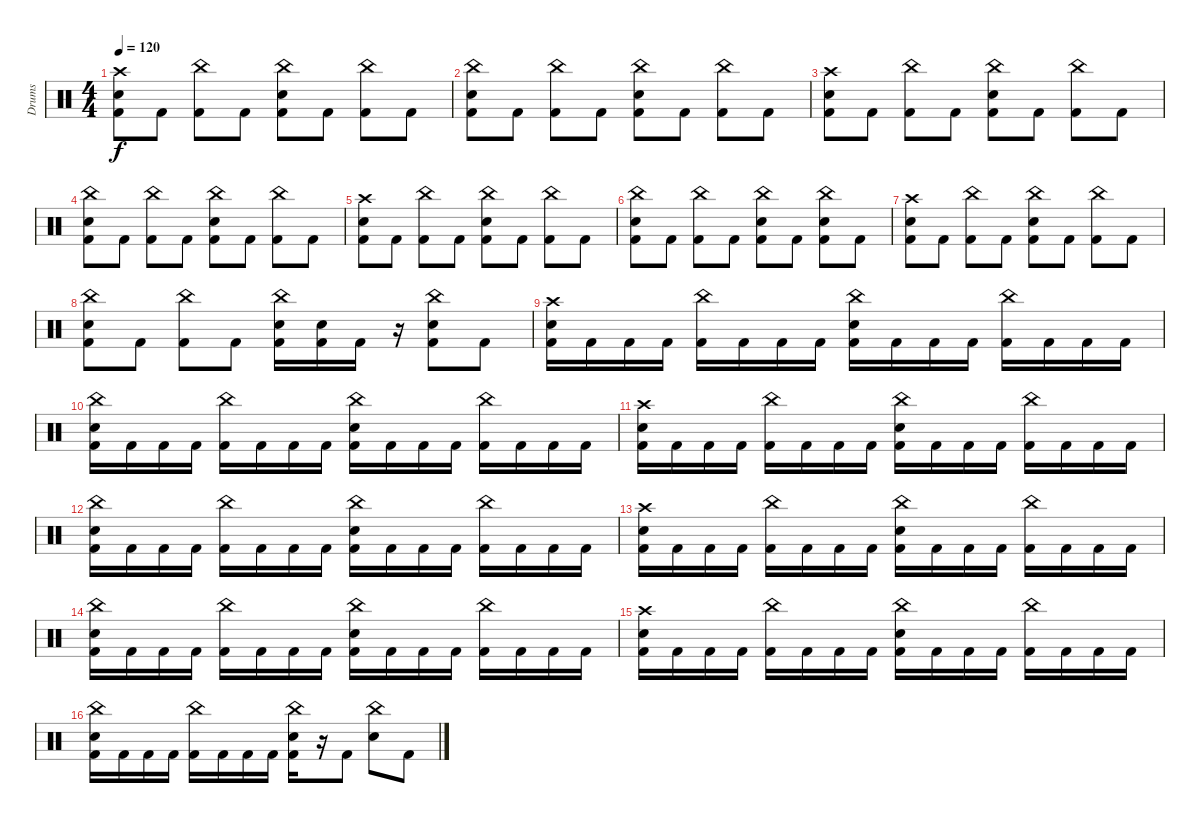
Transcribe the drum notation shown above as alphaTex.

\track ("Drums" "Drums") {instrument percussion}
\staff {score}
\articulation defaults
\ts (4 4)
\tempo 120
\clef neutral
\ks c
("Crash high (hit)" "Snare (hit) 2" "Kick (hit) 2").8{dy f} "Kick (hit) 2".8 ("China (hit)" "Kick (hit) 2").8 "Kick (hit) 2".8 ("China (hit)" "Snare (hit) 2" "Kick (hit) 2").8 "Kick (hit) 2".8 ("China (hit)" "Kick (hit) 2").8 "Kick (hit) 2".8 |
("China (hit)" "Snare (hit) 2" "Kick (hit) 2").8 "Kick (hit) 2".8 ("China (hit)" "Kick (hit) 2").8 "Kick (hit) 2".8 ("China (hit)" "Snare (hit) 2" "Kick (hit) 2").8 "Kick (hit) 2".8 ("China (hit)" "Kick (hit) 2").8 "Kick (hit) 2".8 |
("Crash high (hit)" "Snare (hit) 2" "Kick (hit) 2").8 "Kick (hit) 2".8 ("China (hit)" "Kick (hit) 2").8 "Kick (hit) 2".8 ("China (hit)" "Snare (hit) 2" "Kick (hit) 2").8 "Kick (hit) 2".8 ("China (hit)" "Kick (hit) 2").8 "Kick (hit) 2".8 |
("China (hit)" "Snare (hit) 2" "Kick (hit) 2").8 "Kick (hit) 2".8 ("China (hit)" "Kick (hit) 2").8 "Kick (hit) 2".8 ("China (hit)" "Snare (hit) 2" "Kick (hit) 2").8 "Kick (hit) 2".8 ("China (hit)" "Kick (hit) 2").8 "Kick (hit) 2".8 |
("Crash high (hit)" "Snare (hit) 2" "Kick (hit) 2").8 "Kick (hit) 2".8 ("China (hit)" "Kick (hit) 2").8 "Kick (hit) 2".8 ("China (hit)" "Snare (hit) 2" "Kick (hit) 2").8 "Kick (hit) 2".8 ("China (hit)" "Kick (hit) 2").8 "Kick (hit) 2".8 |
("China (hit)" "Snare (hit) 2" "Kick (hit) 2").8 "Kick (hit) 2".8 ("China (hit)" "Kick (hit) 2").8 "Kick (hit) 2".8 ("China (hit)" "Snare (hit) 2" "Kick (hit) 2").8 "Kick (hit) 2".8 ("China (hit)" "Snare (hit) 2" "Kick (hit) 2").8 "Kick (hit) 2".8 |
("Crash high (hit)" "Snare (hit) 2" "Kick (hit) 2").8 "Kick (hit) 2".8 ("China (hit)" "Kick (hit) 2").8 "Kick (hit) 2".8 ("China (hit)" "Snare (hit) 2" "Kick (hit) 2").8 "Kick (hit) 2".8 ("China (hit)" "Kick (hit) 2").8 "Kick (hit) 2".8 |
("China (hit)" "Snare (hit) 2" "Kick (hit) 2").8 "Kick (hit) 2".8 ("China (hit)" "Kick (hit) 2").8 "Kick (hit) 2".8 ("China (hit)" "Snare (hit) 2" "Kick (hit) 2").16 ("Snare (hit) 2" "Kick (hit) 2").16 "Kick (hit) 2".16 r.16 ("China (hit)" "Snare (hit) 2" "Kick (hit) 2").8 "Kick (hit) 2".8 |
("Crash high (hit)" "Snare (hit) 2" "Kick (hit) 2").16 "Kick (hit) 2".16 "Kick (hit) 2".16 "Kick (hit) 2".16 ("China (hit)" "Kick (hit) 2").16 "Kick (hit) 2".16 "Kick (hit) 2".16 "Kick (hit) 2".16 ("China (hit)" "Snare (hit) 2" "Kick (hit) 2").16 "Kick (hit) 2".16 "Kick (hit) 2".16 "Kick (hit) 2".16 ("China (hit)" "Kick (hit) 2").16 "Kick (hit) 2".16 "Kick (hit) 2".16 "Kick (hit) 2".16 |
("China (hit)" "Snare (hit) 2" "Kick (hit) 2").16 "Kick (hit) 2".16 "Kick (hit) 2".16 "Kick (hit) 2".16 ("China (hit)" "Kick (hit) 2").16 "Kick (hit) 2".16 "Kick (hit) 2".16 "Kick (hit) 2".16 ("China (hit)" "Snare (hit) 2" "Kick (hit) 2").16 "Kick (hit) 2".16 "Kick (hit) 2".16 "Kick (hit) 2".16 ("China (hit)" "Kick (hit) 2").16 "Kick (hit) 2".16 "Kick (hit) 2".16 "Kick (hit) 2".16 |
("Crash high (hit)" "Snare (hit) 2" "Kick (hit) 2").16 "Kick (hit) 2".16 "Kick (hit) 2".16 "Kick (hit) 2".16 ("China (hit)" "Kick (hit) 2").16 "Kick (hit) 2".16 "Kick (hit) 2".16 "Kick (hit) 2".16 ("China (hit)" "Snare (hit) 2" "Kick (hit) 2").16 "Kick (hit) 2".16 "Kick (hit) 2".16 "Kick (hit) 2".16 ("China (hit)" "Kick (hit) 2").16 "Kick (hit) 2".16 "Kick (hit) 2".16 "Kick (hit) 2".16 |
("China (hit)" "Snare (hit) 2" "Kick (hit) 2").16 "Kick (hit) 2".16 "Kick (hit) 2".16 "Kick (hit) 2".16 ("China (hit)" "Kick (hit) 2").16 "Kick (hit) 2".16 "Kick (hit) 2".16 "Kick (hit) 2".16 ("China (hit)" "Snare (hit) 2" "Kick (hit) 2").16 "Kick (hit) 2".16 "Kick (hit) 2".16 "Kick (hit) 2".16 ("China (hit)" "Kick (hit) 2").16 "Kick (hit) 2".16 "Kick (hit) 2".16 "Kick (hit) 2".16 |
("Crash high (hit)" "Snare (hit) 2" "Kick (hit) 2").16 "Kick (hit) 2".16 "Kick (hit) 2".16 "Kick (hit) 2".16 ("China (hit)" "Kick (hit) 2").16 "Kick (hit) 2".16 "Kick (hit) 2".16 "Kick (hit) 2".16 ("China (hit)" "Snare (hit) 2" "Kick (hit) 2").16 "Kick (hit) 2".16 "Kick (hit) 2".16 "Kick (hit) 2".16 ("China (hit)" "Kick (hit) 2").16 "Kick (hit) 2".16 "Kick (hit) 2".16 "Kick (hit) 2".16 |
("China (hit)" "Snare (hit) 2" "Kick (hit) 2").16 "Kick (hit) 2".16 "Kick (hit) 2".16 "Kick (hit) 2".16 ("China (hit)" "Kick (hit) 2").16 "Kick (hit) 2".16 "Kick (hit) 2".16 "Kick (hit) 2".16 ("China (hit)" "Snare (hit) 2" "Kick (hit) 2").16 "Kick (hit) 2".16 "Kick (hit) 2".16 "Kick (hit) 2".16 ("China (hit)" "Kick (hit) 2").16 "Kick (hit) 2".16 "Kick (hit) 2".16 "Kick (hit) 2".16 |
("Crash high (hit)" "Snare (hit) 2" "Kick (hit) 2").16 "Kick (hit) 2".16 "Kick (hit) 2".16 "Kick (hit) 2".16 ("China (hit)" "Kick (hit) 2").16 "Kick (hit) 2".16 "Kick (hit) 2".16 "Kick (hit) 2".16 ("China (hit)" "Snare (hit) 2" "Kick (hit) 2").16 "Kick (hit) 2".16 "Kick (hit) 2".16 "Kick (hit) 2".16 ("China (hit)" "Kick (hit) 2").16 "Kick (hit) 2".16 "Kick (hit) 2".16 "Kick (hit) 2".16 |
("China (hit)" "Snare (hit) 2" "Kick (hit) 2").16 "Kick (hit) 2".16 "Kick (hit) 2".16 "Kick (hit) 2".16 ("China (hit)" "Kick (hit) 2").16 "Kick (hit) 2".16 "Kick (hit) 2".16 "Kick (hit) 2".16 ("China (hit)" "Snare (hit) 2" "Kick (hit) 2").16 r.16 "Kick (hit) 2".8 ("China (hit)" "Snare (hit) 2").8 "Kick (hit) 2".8
